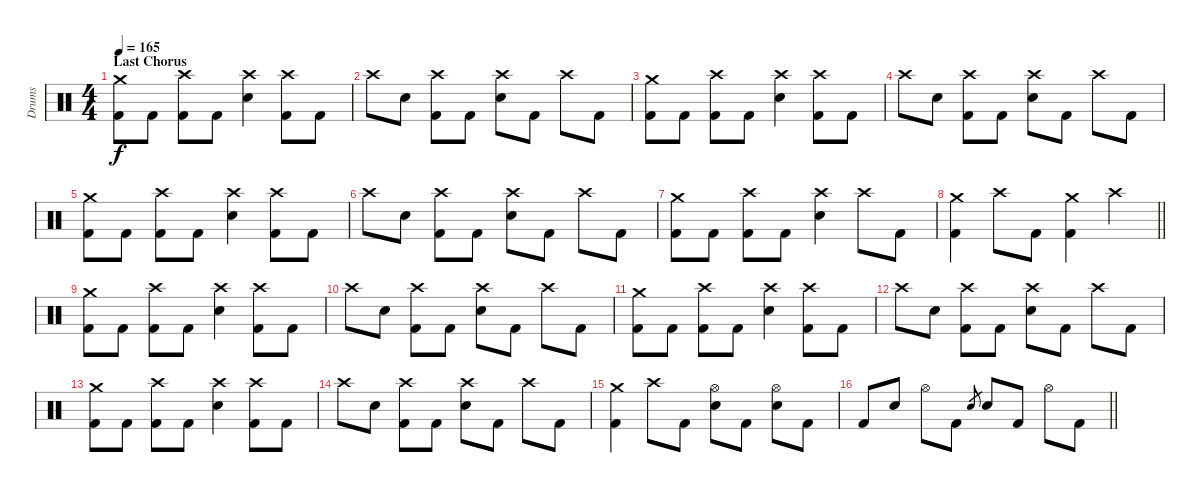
\track ("Drums" "Drums") {instrument percussion}
\staff {score}
\articulation defaults
\ts (4 4)
\section ("" "Last Chorus")
\tempo 165
\clef neutral
\ks c
("Crash medium (hit)" "Kick (hit) 2").8{dy f} "Kick (hit) 2".8 ("Crash high (hit)" "Kick (hit) 2").8 "Kick (hit) 2".8 ("Crash high (hit)" "Electric Snare (hit)").4 ("Crash high (hit)" "Kick (hit) 2").8 "Kick (hit) 2".8 |
"Crash high (hit)".8 "Electric Snare (hit)".8 ("Crash high (hit)" "Kick (hit) 2").8 "Kick (hit) 2".8 ("Crash high (hit)" "Electric Snare (hit)").8 "Kick (hit) 2".8 "Crash high (hit)".8 "Kick (hit) 2".8 |
("Crash medium (hit)" "Kick (hit) 2").8 "Kick (hit) 2".8 ("Crash high (hit)" "Kick (hit) 2").8 "Kick (hit) 2".8 ("Crash high (hit)" "Electric Snare (hit)").4 ("Crash high (hit)" "Kick (hit) 2").8 "Kick (hit) 2".8 |
"Crash high (hit)".8 "Electric Snare (hit)".8 ("Crash high (hit)" "Kick (hit) 2").8 "Kick (hit) 2".8 ("Crash high (hit)" "Electric Snare (hit)").8 "Kick (hit) 2".8 "Crash high (hit)".8 "Kick (hit) 2".8 |
("Crash medium (hit)" "Kick (hit) 2").8 "Kick (hit) 2".8 ("Crash high (hit)" "Kick (hit) 2").8 "Kick (hit) 2".8 ("Crash high (hit)" "Electric Snare (hit)").4 ("Crash high (hit)" "Kick (hit) 2").8 "Kick (hit) 2".8 |
"Crash high (hit)".8 "Electric Snare (hit)".8 ("Crash high (hit)" "Kick (hit) 2").8 "Kick (hit) 2".8 ("Crash high (hit)" "Electric Snare (hit)").8 "Kick (hit) 2".8 "Crash high (hit)".8 "Kick (hit) 2".8 |
("Crash medium (hit)" "Kick (hit) 2").8 "Kick (hit) 2".8 ("Crash high (hit)" "Kick (hit) 2").8 "Kick (hit) 2".8 ("Crash high (hit)" "Electric Snare (hit)").4 "Crash high (hit)".8 "Kick (hit) 2".8 |
\barLineRight lightlight
("Crash medium (hit)" "Kick (hit) 2").4 "Crash high (hit)".8 "Kick (hit) 2".8 ("Crash medium (hit)" "Kick (hit) 2").4 "Crash high (hit)".4 |
("Crash medium (hit)" "Kick (hit) 2").8 "Kick (hit) 2".8 ("Crash high (hit)" "Kick (hit) 2").8 "Kick (hit) 2".8 ("Crash high (hit)" "Electric Snare (hit)").4 ("Crash high (hit)" "Kick (hit) 2").8 "Kick (hit) 2".8 |
"Crash high (hit)".8 "Electric Snare (hit)".8 ("Crash high (hit)" "Kick (hit) 2").8 "Kick (hit) 2".8 ("Crash high (hit)" "Electric Snare (hit)").8 "Kick (hit) 2".8 "Crash high (hit)".8 "Kick (hit) 2".8 |
("Crash medium (hit)" "Kick (hit) 2").8 "Kick (hit) 2".8 ("Crash high (hit)" "Kick (hit) 2").8 "Kick (hit) 2".8 ("Crash high (hit)" "Electric Snare (hit)").4 ("Crash high (hit)" "Kick (hit) 2").8 "Kick (hit) 2".8 |
"Crash high (hit)".8 "Electric Snare (hit)".8 ("Crash high (hit)" "Kick (hit) 2").8 "Kick (hit) 2".8 ("Crash high (hit)" "Electric Snare (hit)").8 "Kick (hit) 2".8 "Crash high (hit)".8 "Kick (hit) 2".8 |
("Crash medium (hit)" "Kick (hit) 2").8 "Kick (hit) 2".8 ("Crash high (hit)" "Kick (hit) 2").8 "Kick (hit) 2".8 ("Crash high (hit)" "Electric Snare (hit)").4 ("Crash high (hit)" "Kick (hit) 2").8 "Kick (hit) 2".8 |
"Crash high (hit)".8 "Electric Snare (hit)".8 ("Crash high (hit)" "Kick (hit) 2").8 "Kick (hit) 2".8 ("Crash high (hit)" "Electric Snare (hit)").8 "Kick (hit) 2".8 "Crash high (hit)".8 "Kick (hit) 2".8 |
("Crash medium (hit)" "Kick (hit) 2").4 "Crash high (hit)".8 "Kick (hit) 2".8 ("Hi-Hat (open)" "Electric Snare (hit)").8 "Kick (hit) 2".8 ("Hi-Hat (open)" "Electric Snare (hit)").8 "Kick (hit) 2".8 |
\barLineRight lightlight "Kick (hit) 2".8 "Electric Snare (hit)".8 "Hi-Hat (open)".8 "Kick (hit) 2".8 "Electric Snare (hit)".8{gr} "Electric Snare (hit)".8 "Kick (hit) 2".8 "Hi-Hat (open)".8 "Kick (hit) 2".8
